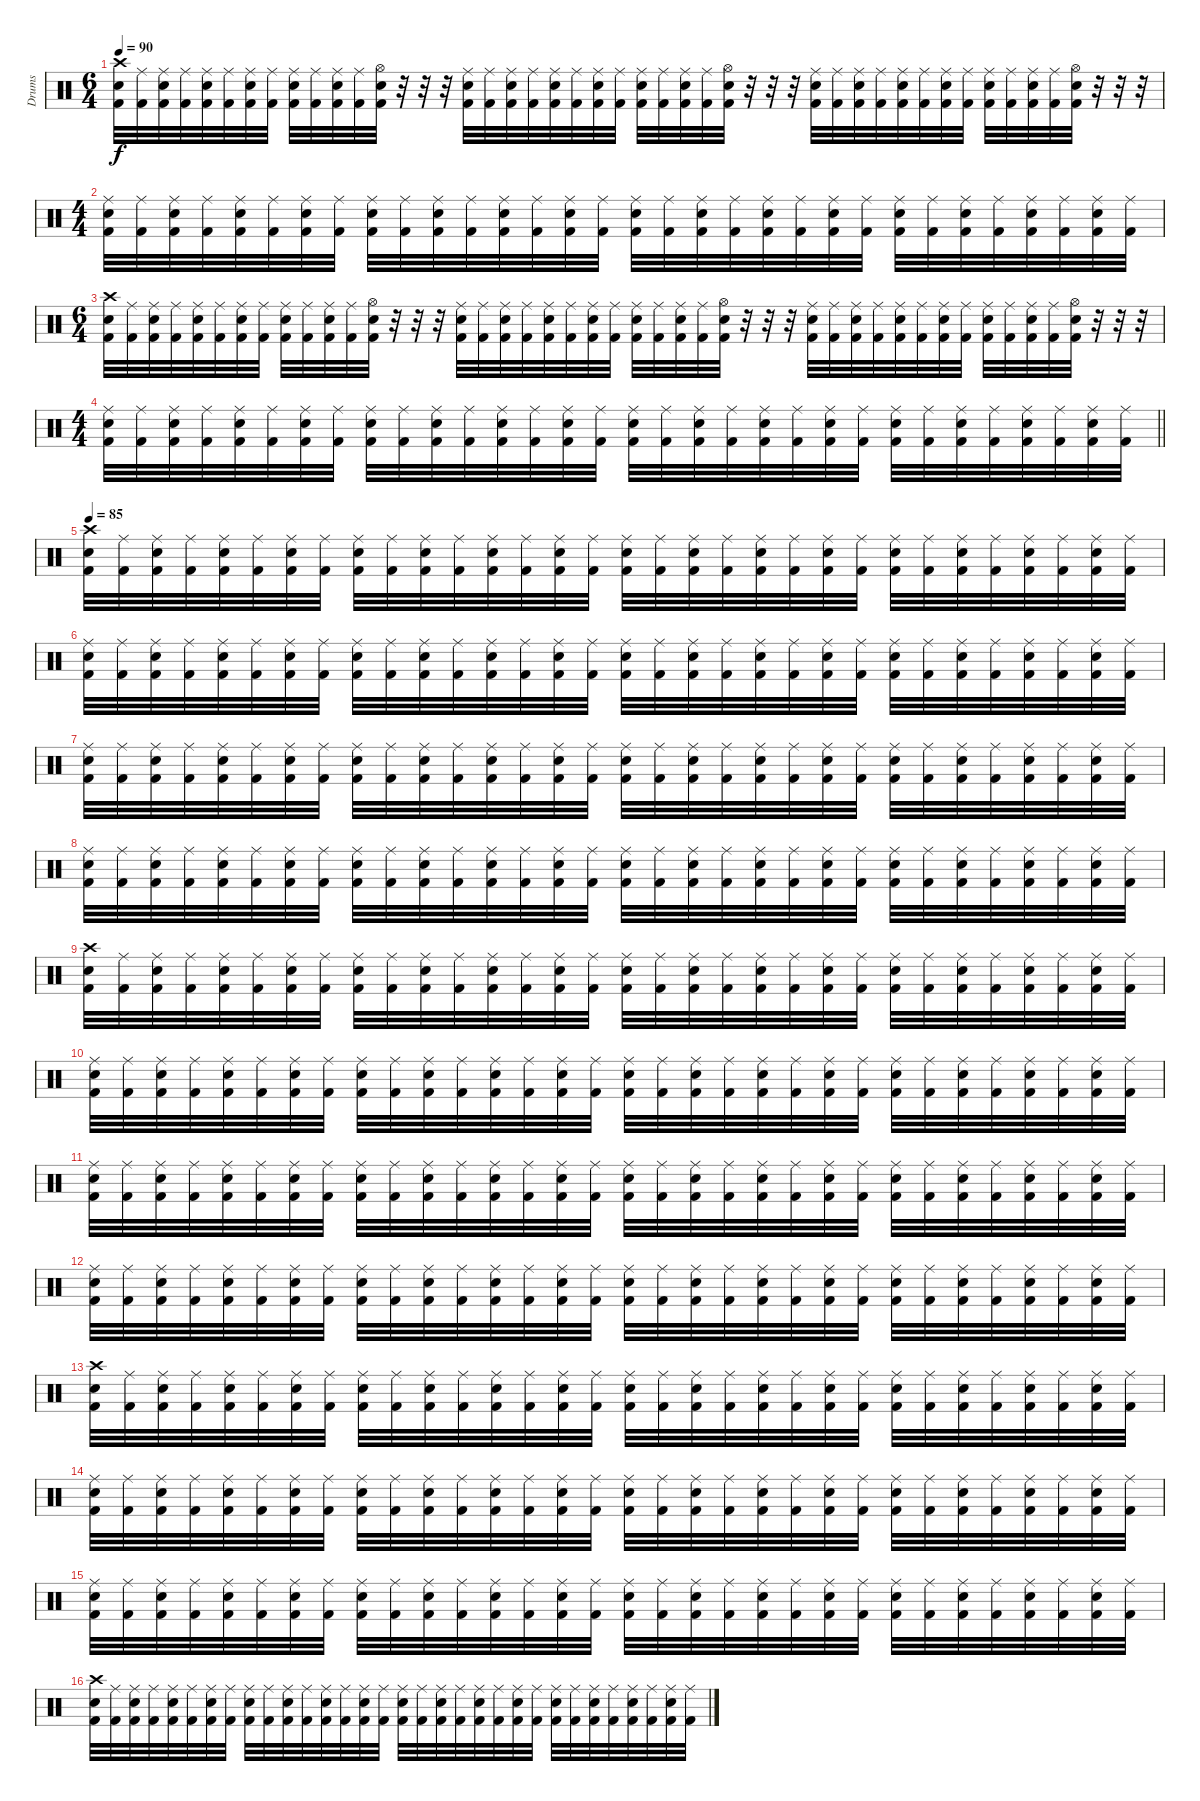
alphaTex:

\track ("Drums" "Drums") {instrument percussion}
\staff {score}
\articulation defaults
\ts (6 4)
\tempo 90
\clef neutral
\ks c
("Crash high (hit)" "Electric Snare (hit)" "Kick (hit) 2").32{dy f} ("Ride (middle)" "Kick (hit) 2").32 ("Ride (middle)" "Electric Snare (hit)" "Kick (hit) 2").32 ("Ride (middle)" "Kick (hit) 2").32 ("Ride (middle)" "Electric Snare (hit)" "Kick (hit) 2").32 ("Ride (middle)" "Kick (hit) 2").32 ("Ride (middle)" "Electric Snare (hit)" "Kick (hit) 2").32 ("Ride (middle)" "Kick (hit) 2").32 ("Ride (middle)" "Electric Snare (hit)" "Kick (hit) 2").32 ("Ride (middle)" "Kick (hit) 2").32 ("Ride (middle)" "Electric Snare (hit)" "Kick (hit) 2").32 ("Ride (middle)" "Kick (hit) 2").32 ("Hi-Hat (open)" "Electric Snare (hit)" "Kick (hit) 2").32 r.32 r.32 r.32 ("Ride (middle)" "Electric Snare (hit)" "Kick (hit) 2").32 ("Ride (middle)" "Kick (hit) 2").32 ("Ride (middle)" "Electric Snare (hit)" "Kick (hit) 2").32 ("Ride (middle)" "Kick (hit) 2").32 ("Ride (middle)" "Electric Snare (hit)" "Kick (hit) 2").32 ("Ride (middle)" "Kick (hit) 2").32 ("Ride (middle)" "Electric Snare (hit)" "Kick (hit) 2").32 ("Ride (middle)" "Kick (hit) 2").32 ("Ride (middle)" "Electric Snare (hit)" "Kick (hit) 2").32 ("Ride (middle)" "Kick (hit) 2").32 ("Ride (middle)" "Electric Snare (hit)" "Kick (hit) 2").32 ("Ride (middle)" "Kick (hit) 2").32 ("Hi-Hat (open)" "Electric Snare (hit)" "Kick (hit) 2").32 r.32 r.32 r.32 ("Ride (middle)" "Electric Snare (hit)" "Kick (hit) 2").32 ("Ride (middle)" "Kick (hit) 2").32 ("Ride (middle)" "Electric Snare (hit)" "Kick (hit) 2").32 ("Ride (middle)" "Kick (hit) 2").32 ("Ride (middle)" "Electric Snare (hit)" "Kick (hit) 2").32 ("Ride (middle)" "Kick (hit) 2").32 ("Ride (middle)" "Electric Snare (hit)" "Kick (hit) 2").32 ("Ride (middle)" "Kick (hit) 2").32 ("Ride (middle)" "Electric Snare (hit)" "Kick (hit) 2").32 ("Ride (middle)" "Kick (hit) 2").32 ("Ride (middle)" "Electric Snare (hit)" "Kick (hit) 2").32 ("Ride (middle)" "Kick (hit) 2").32 ("Hi-Hat (open)" "Electric Snare (hit)" "Kick (hit) 2").32 r.32 r.32 r.32 |
\ts (4 4)
("Ride (middle)" "Electric Snare (hit)" "Kick (hit) 2").32 ("Ride (middle)" "Kick (hit) 2").32 ("Ride (middle)" "Electric Snare (hit)" "Kick (hit) 2").32 ("Ride (middle)" "Kick (hit) 2").32 ("Ride (middle)" "Electric Snare (hit)" "Kick (hit) 2").32 ("Ride (middle)" "Kick (hit) 2").32 ("Ride (middle)" "Electric Snare (hit)" "Kick (hit) 2").32 ("Ride (middle)" "Kick (hit) 2").32 ("Ride (middle)" "Electric Snare (hit)" "Kick (hit) 2").32 ("Ride (middle)" "Kick (hit) 2").32 ("Ride (middle)" "Electric Snare (hit)" "Kick (hit) 2").32 ("Ride (middle)" "Kick (hit) 2").32 ("Ride (middle)" "Electric Snare (hit)" "Kick (hit) 2").32 ("Ride (middle)" "Kick (hit) 2").32 ("Ride (middle)" "Electric Snare (hit)" "Kick (hit) 2").32 ("Ride (middle)" "Kick (hit) 2").32 ("Ride (middle)" "Electric Snare (hit)" "Kick (hit) 2").32 ("Ride (middle)" "Kick (hit) 2").32 ("Ride (middle)" "Electric Snare (hit)" "Kick (hit) 2").32 ("Ride (middle)" "Kick (hit) 2").32 ("Ride (middle)" "Electric Snare (hit)" "Kick (hit) 2").32 ("Ride (middle)" "Kick (hit) 2").32 ("Ride (middle)" "Electric Snare (hit)" "Kick (hit) 2").32 ("Ride (middle)" "Kick (hit) 2").32 ("Ride (middle)" "Electric Snare (hit)" "Kick (hit) 2").32 ("Ride (middle)" "Kick (hit) 2").32 ("Ride (middle)" "Electric Snare (hit)" "Kick (hit) 2").32 ("Ride (middle)" "Kick (hit) 2").32 ("Ride (middle)" "Electric Snare (hit)" "Kick (hit) 2").32 ("Ride (middle)" "Kick (hit) 2").32 ("Ride (middle)" "Electric Snare (hit)" "Kick (hit) 2").32 ("Ride (middle)" "Kick (hit) 2").32 |
\ts (6 4)
("Crash high (hit)" "Electric Snare (hit)" "Kick (hit) 2").32 ("Ride (middle)" "Kick (hit) 2").32 ("Ride (middle)" "Electric Snare (hit)" "Kick (hit) 2").32 ("Ride (middle)" "Kick (hit) 2").32 ("Ride (middle)" "Electric Snare (hit)" "Kick (hit) 2").32 ("Ride (middle)" "Kick (hit) 2").32 ("Ride (middle)" "Electric Snare (hit)" "Kick (hit) 2").32 ("Ride (middle)" "Kick (hit) 2").32 ("Ride (middle)" "Electric Snare (hit)" "Kick (hit) 2").32 ("Ride (middle)" "Kick (hit) 2").32 ("Ride (middle)" "Electric Snare (hit)" "Kick (hit) 2").32 ("Ride (middle)" "Kick (hit) 2").32 ("Hi-Hat (open)" "Electric Snare (hit)" "Kick (hit) 2").32 r.32 r.32 r.32 ("Ride (middle)" "Electric Snare (hit)" "Kick (hit) 2").32 ("Ride (middle)" "Kick (hit) 2").32 ("Ride (middle)" "Electric Snare (hit)" "Kick (hit) 2").32 ("Ride (middle)" "Kick (hit) 2").32 ("Ride (middle)" "Electric Snare (hit)" "Kick (hit) 2").32 ("Ride (middle)" "Kick (hit) 2").32 ("Ride (middle)" "Electric Snare (hit)" "Kick (hit) 2").32 ("Ride (middle)" "Kick (hit) 2").32 ("Ride (middle)" "Electric Snare (hit)" "Kick (hit) 2").32 ("Ride (middle)" "Kick (hit) 2").32 ("Ride (middle)" "Electric Snare (hit)" "Kick (hit) 2").32 ("Ride (middle)" "Kick (hit) 2").32 ("Hi-Hat (open)" "Electric Snare (hit)" "Kick (hit) 2").32 r.32 r.32 r.32 ("Ride (middle)" "Electric Snare (hit)" "Kick (hit) 2").32 ("Ride (middle)" "Kick (hit) 2").32 ("Ride (middle)" "Electric Snare (hit)" "Kick (hit) 2").32 ("Ride (middle)" "Kick (hit) 2").32 ("Ride (middle)" "Electric Snare (hit)" "Kick (hit) 2").32 ("Ride (middle)" "Kick (hit) 2").32 ("Ride (middle)" "Electric Snare (hit)" "Kick (hit) 2").32 ("Ride (middle)" "Kick (hit) 2").32 ("Ride (middle)" "Electric Snare (hit)" "Kick (hit) 2").32 ("Ride (middle)" "Kick (hit) 2").32 ("Ride (middle)" "Electric Snare (hit)" "Kick (hit) 2").32 ("Ride (middle)" "Kick (hit) 2").32 ("Hi-Hat (open)" "Electric Snare (hit)" "Kick (hit) 2").32 r.32 r.32 r.32 |
\ts (4 4)
\barLineRight lightlight
("Ride (middle)" "Electric Snare (hit)" "Kick (hit) 2").32 ("Ride (middle)" "Kick (hit) 2").32 ("Ride (middle)" "Electric Snare (hit)" "Kick (hit) 2").32 ("Ride (middle)" "Kick (hit) 2").32 ("Ride (middle)" "Electric Snare (hit)" "Kick (hit) 2").32 ("Ride (middle)" "Kick (hit) 2").32 ("Ride (middle)" "Electric Snare (hit)" "Kick (hit) 2").32 ("Ride (middle)" "Kick (hit) 2").32 ("Ride (middle)" "Electric Snare (hit)" "Kick (hit) 2").32 ("Ride (middle)" "Kick (hit) 2").32 ("Ride (middle)" "Electric Snare (hit)" "Kick (hit) 2").32 ("Ride (middle)" "Kick (hit) 2").32 ("Ride (middle)" "Electric Snare (hit)" "Kick (hit) 2").32 ("Ride (middle)" "Kick (hit) 2").32 ("Ride (middle)" "Electric Snare (hit)" "Kick (hit) 2").32 ("Ride (middle)" "Kick (hit) 2").32 ("Ride (middle)" "Electric Snare (hit)" "Kick (hit) 2").32 ("Ride (middle)" "Kick (hit) 2").32 ("Ride (middle)" "Electric Snare (hit)" "Kick (hit) 2").32 ("Ride (middle)" "Kick (hit) 2").32 ("Ride (middle)" "Electric Snare (hit)" "Kick (hit) 2").32 ("Ride (middle)" "Kick (hit) 2").32 ("Ride (middle)" "Electric Snare (hit)" "Kick (hit) 2").32 ("Ride (middle)" "Kick (hit) 2").32 ("Ride (middle)" "Electric Snare (hit)" "Kick (hit) 2").32 ("Ride (middle)" "Kick (hit) 2").32 ("Ride (middle)" "Electric Snare (hit)" "Kick (hit) 2").32 ("Ride (middle)" "Kick (hit) 2").32 ("Ride (middle)" "Electric Snare (hit)" "Kick (hit) 2").32 ("Ride (middle)" "Kick (hit) 2").32 ("Ride (middle)" "Electric Snare (hit)" "Kick (hit) 2").32 ("Ride (middle)" "Kick (hit) 2").32 |
\tempo 85
("Crash high (hit)" "Electric Snare (hit)" "Kick (hit) 2").32 ("Ride (middle)" "Kick (hit) 2").32 ("Ride (middle)" "Electric Snare (hit)" "Kick (hit) 2").32 ("Ride (middle)" "Kick (hit) 2").32 ("Ride (middle)" "Electric Snare (hit)" "Kick (hit) 2").32 ("Ride (middle)" "Kick (hit) 2").32 ("Ride (middle)" "Electric Snare (hit)" "Kick (hit) 2").32 ("Ride (middle)" "Kick (hit) 2").32 ("Ride (middle)" "Electric Snare (hit)" "Kick (hit) 2").32 ("Ride (middle)" "Kick (hit) 2").32 ("Ride (middle)" "Electric Snare (hit)" "Kick (hit) 2").32 ("Ride (middle)" "Kick (hit) 2").32 ("Ride (middle)" "Electric Snare (hit)" "Kick (hit) 2").32 ("Ride (middle)" "Kick (hit) 2").32 ("Ride (middle)" "Electric Snare (hit)" "Kick (hit) 2").32 ("Ride (middle)" "Kick (hit) 2").32 ("Ride (middle)" "Electric Snare (hit)" "Kick (hit) 2").32 ("Ride (middle)" "Kick (hit) 2").32 ("Ride (middle)" "Electric Snare (hit)" "Kick (hit) 2").32 ("Ride (middle)" "Kick (hit) 2").32 ("Ride (middle)" "Electric Snare (hit)" "Kick (hit) 2").32 ("Ride (middle)" "Kick (hit) 2").32 ("Ride (middle)" "Electric Snare (hit)" "Kick (hit) 2").32 ("Ride (middle)" "Kick (hit) 2").32 ("Ride (middle)" "Electric Snare (hit)" "Kick (hit) 2").32 ("Ride (middle)" "Kick (hit) 2").32 ("Ride (middle)" "Electric Snare (hit)" "Kick (hit) 2").32 ("Ride (middle)" "Kick (hit) 2").32 ("Ride (middle)" "Electric Snare (hit)" "Kick (hit) 2").32 ("Ride (middle)" "Kick (hit) 2").32 ("Ride (middle)" "Electric Snare (hit)" "Kick (hit) 2").32 ("Ride (middle)" "Kick (hit) 2").32 |
("Ride (middle)" "Electric Snare (hit)" "Kick (hit) 2").32 ("Ride (middle)" "Kick (hit) 2").32 ("Ride (middle)" "Electric Snare (hit)" "Kick (hit) 2").32 ("Ride (middle)" "Kick (hit) 2").32 ("Ride (middle)" "Electric Snare (hit)" "Kick (hit) 2").32 ("Ride (middle)" "Kick (hit) 2").32 ("Ride (middle)" "Electric Snare (hit)" "Kick (hit) 2").32 ("Ride (middle)" "Kick (hit) 2").32 ("Ride (middle)" "Electric Snare (hit)" "Kick (hit) 2").32 ("Ride (middle)" "Kick (hit) 2").32 ("Ride (middle)" "Electric Snare (hit)" "Kick (hit) 2").32 ("Ride (middle)" "Kick (hit) 2").32 ("Ride (middle)" "Electric Snare (hit)" "Kick (hit) 2").32 ("Ride (middle)" "Kick (hit) 2").32 ("Ride (middle)" "Electric Snare (hit)" "Kick (hit) 2").32 ("Ride (middle)" "Kick (hit) 2").32 ("Ride (middle)" "Electric Snare (hit)" "Kick (hit) 2").32 ("Ride (middle)" "Kick (hit) 2").32 ("Ride (middle)" "Electric Snare (hit)" "Kick (hit) 2").32 ("Ride (middle)" "Kick (hit) 2").32 ("Ride (middle)" "Electric Snare (hit)" "Kick (hit) 2").32 ("Ride (middle)" "Kick (hit) 2").32 ("Ride (middle)" "Electric Snare (hit)" "Kick (hit) 2").32 ("Ride (middle)" "Kick (hit) 2").32 ("Ride (middle)" "Electric Snare (hit)" "Kick (hit) 2").32 ("Ride (middle)" "Kick (hit) 2").32 ("Ride (middle)" "Electric Snare (hit)" "Kick (hit) 2").32 ("Ride (middle)" "Kick (hit) 2").32 ("Ride (middle)" "Electric Snare (hit)" "Kick (hit) 2").32 ("Ride (middle)" "Kick (hit) 2").32 ("Ride (middle)" "Electric Snare (hit)" "Kick (hit) 2").32 ("Ride (middle)" "Kick (hit) 2").32 |
("Ride (middle)" "Electric Snare (hit)" "Kick (hit) 2").32 ("Ride (middle)" "Kick (hit) 2").32 ("Ride (middle)" "Electric Snare (hit)" "Kick (hit) 2").32 ("Ride (middle)" "Kick (hit) 2").32 ("Ride (middle)" "Electric Snare (hit)" "Kick (hit) 2").32 ("Ride (middle)" "Kick (hit) 2").32 ("Ride (middle)" "Electric Snare (hit)" "Kick (hit) 2").32 ("Ride (middle)" "Kick (hit) 2").32 ("Ride (middle)" "Electric Snare (hit)" "Kick (hit) 2").32 ("Ride (middle)" "Kick (hit) 2").32 ("Ride (middle)" "Electric Snare (hit)" "Kick (hit) 2").32 ("Ride (middle)" "Kick (hit) 2").32 ("Ride (middle)" "Electric Snare (hit)" "Kick (hit) 2").32 ("Ride (middle)" "Kick (hit) 2").32 ("Ride (middle)" "Electric Snare (hit)" "Kick (hit) 2").32 ("Ride (middle)" "Kick (hit) 2").32 ("Ride (middle)" "Electric Snare (hit)" "Kick (hit) 2").32 ("Ride (middle)" "Kick (hit) 2").32 ("Ride (middle)" "Electric Snare (hit)" "Kick (hit) 2").32 ("Ride (middle)" "Kick (hit) 2").32 ("Ride (middle)" "Electric Snare (hit)" "Kick (hit) 2").32 ("Ride (middle)" "Kick (hit) 2").32 ("Ride (middle)" "Electric Snare (hit)" "Kick (hit) 2").32 ("Ride (middle)" "Kick (hit) 2").32 ("Ride (middle)" "Electric Snare (hit)" "Kick (hit) 2").32 ("Ride (middle)" "Kick (hit) 2").32 ("Ride (middle)" "Electric Snare (hit)" "Kick (hit) 2").32 ("Ride (middle)" "Kick (hit) 2").32 ("Ride (middle)" "Electric Snare (hit)" "Kick (hit) 2").32 ("Ride (middle)" "Kick (hit) 2").32 ("Ride (middle)" "Electric Snare (hit)" "Kick (hit) 2").32 ("Ride (middle)" "Kick (hit) 2").32 |
("Ride (middle)" "Electric Snare (hit)" "Kick (hit) 2").32 ("Ride (middle)" "Kick (hit) 2").32 ("Ride (middle)" "Electric Snare (hit)" "Kick (hit) 2").32 ("Ride (middle)" "Kick (hit) 2").32 ("Ride (middle)" "Electric Snare (hit)" "Kick (hit) 2").32 ("Ride (middle)" "Kick (hit) 2").32 ("Ride (middle)" "Electric Snare (hit)" "Kick (hit) 2").32 ("Ride (middle)" "Kick (hit) 2").32 ("Ride (middle)" "Electric Snare (hit)" "Kick (hit) 2").32 ("Ride (middle)" "Kick (hit) 2").32 ("Ride (middle)" "Electric Snare (hit)" "Kick (hit) 2").32 ("Ride (middle)" "Kick (hit) 2").32 ("Ride (middle)" "Electric Snare (hit)" "Kick (hit) 2").32 ("Ride (middle)" "Kick (hit) 2").32 ("Ride (middle)" "Electric Snare (hit)" "Kick (hit) 2").32 ("Ride (middle)" "Kick (hit) 2").32 ("Ride (middle)" "Electric Snare (hit)" "Kick (hit) 2").32 ("Ride (middle)" "Kick (hit) 2").32 ("Ride (middle)" "Electric Snare (hit)" "Kick (hit) 2").32 ("Ride (middle)" "Kick (hit) 2").32 ("Ride (middle)" "Electric Snare (hit)" "Kick (hit) 2").32 ("Ride (middle)" "Kick (hit) 2").32 ("Ride (middle)" "Electric Snare (hit)" "Kick (hit) 2").32 ("Ride (middle)" "Kick (hit) 2").32 ("Ride (middle)" "Electric Snare (hit)" "Kick (hit) 2").32 ("Ride (middle)" "Kick (hit) 2").32 ("Ride (middle)" "Electric Snare (hit)" "Kick (hit) 2").32 ("Ride (middle)" "Kick (hit) 2").32 ("Ride (middle)" "Electric Snare (hit)" "Kick (hit) 2").32 ("Ride (middle)" "Kick (hit) 2").32 ("Ride (middle)" "Electric Snare (hit)" "Kick (hit) 2").32 ("Ride (middle)" "Kick (hit) 2").32 |
("Crash high (hit)" "Electric Snare (hit)" "Kick (hit) 2").32 ("Ride (middle)" "Kick (hit) 2").32 ("Ride (middle)" "Electric Snare (hit)" "Kick (hit) 2").32 ("Ride (middle)" "Kick (hit) 2").32 ("Ride (middle)" "Electric Snare (hit)" "Kick (hit) 2").32 ("Ride (middle)" "Kick (hit) 2").32 ("Ride (middle)" "Electric Snare (hit)" "Kick (hit) 2").32 ("Ride (middle)" "Kick (hit) 2").32 ("Ride (middle)" "Electric Snare (hit)" "Kick (hit) 2").32 ("Ride (middle)" "Kick (hit) 2").32 ("Ride (middle)" "Electric Snare (hit)" "Kick (hit) 2").32 ("Ride (middle)" "Kick (hit) 2").32 ("Ride (middle)" "Electric Snare (hit)" "Kick (hit) 2").32 ("Ride (middle)" "Kick (hit) 2").32 ("Ride (middle)" "Electric Snare (hit)" "Kick (hit) 2").32 ("Ride (middle)" "Kick (hit) 2").32 ("Ride (middle)" "Electric Snare (hit)" "Kick (hit) 2").32 ("Ride (middle)" "Kick (hit) 2").32 ("Ride (middle)" "Electric Snare (hit)" "Kick (hit) 2").32 ("Ride (middle)" "Kick (hit) 2").32 ("Ride (middle)" "Electric Snare (hit)" "Kick (hit) 2").32 ("Ride (middle)" "Kick (hit) 2").32 ("Ride (middle)" "Electric Snare (hit)" "Kick (hit) 2").32 ("Ride (middle)" "Kick (hit) 2").32 ("Ride (middle)" "Electric Snare (hit)" "Kick (hit) 2").32 ("Ride (middle)" "Kick (hit) 2").32 ("Ride (middle)" "Electric Snare (hit)" "Kick (hit) 2").32 ("Ride (middle)" "Kick (hit) 2").32 ("Ride (middle)" "Electric Snare (hit)" "Kick (hit) 2").32 ("Ride (middle)" "Kick (hit) 2").32 ("Ride (middle)" "Electric Snare (hit)" "Kick (hit) 2").32 ("Ride (middle)" "Kick (hit) 2").32 |
("Ride (middle)" "Electric Snare (hit)" "Kick (hit) 2").32 ("Ride (middle)" "Kick (hit) 2").32 ("Ride (middle)" "Electric Snare (hit)" "Kick (hit) 2").32 ("Ride (middle)" "Kick (hit) 2").32 ("Ride (middle)" "Electric Snare (hit)" "Kick (hit) 2").32 ("Ride (middle)" "Kick (hit) 2").32 ("Ride (middle)" "Electric Snare (hit)" "Kick (hit) 2").32 ("Ride (middle)" "Kick (hit) 2").32 ("Ride (middle)" "Electric Snare (hit)" "Kick (hit) 2").32 ("Ride (middle)" "Kick (hit) 2").32 ("Ride (middle)" "Electric Snare (hit)" "Kick (hit) 2").32 ("Ride (middle)" "Kick (hit) 2").32 ("Ride (middle)" "Electric Snare (hit)" "Kick (hit) 2").32 ("Ride (middle)" "Kick (hit) 2").32 ("Ride (middle)" "Electric Snare (hit)" "Kick (hit) 2").32 ("Ride (middle)" "Kick (hit) 2").32 ("Ride (middle)" "Electric Snare (hit)" "Kick (hit) 2").32 ("Ride (middle)" "Kick (hit) 2").32 ("Ride (middle)" "Electric Snare (hit)" "Kick (hit) 2").32 ("Ride (middle)" "Kick (hit) 2").32 ("Ride (middle)" "Electric Snare (hit)" "Kick (hit) 2").32 ("Ride (middle)" "Kick (hit) 2").32 ("Ride (middle)" "Electric Snare (hit)" "Kick (hit) 2").32 ("Ride (middle)" "Kick (hit) 2").32 ("Ride (middle)" "Electric Snare (hit)" "Kick (hit) 2").32 ("Ride (middle)" "Kick (hit) 2").32 ("Ride (middle)" "Electric Snare (hit)" "Kick (hit) 2").32 ("Ride (middle)" "Kick (hit) 2").32 ("Ride (middle)" "Electric Snare (hit)" "Kick (hit) 2").32 ("Ride (middle)" "Kick (hit) 2").32 ("Ride (middle)" "Electric Snare (hit)" "Kick (hit) 2").32 ("Ride (middle)" "Kick (hit) 2").32 |
("Ride (middle)" "Electric Snare (hit)" "Kick (hit) 2").32 ("Ride (middle)" "Kick (hit) 2").32 ("Ride (middle)" "Electric Snare (hit)" "Kick (hit) 2").32 ("Ride (middle)" "Kick (hit) 2").32 ("Ride (middle)" "Electric Snare (hit)" "Kick (hit) 2").32 ("Ride (middle)" "Kick (hit) 2").32 ("Ride (middle)" "Electric Snare (hit)" "Kick (hit) 2").32 ("Ride (middle)" "Kick (hit) 2").32 ("Ride (middle)" "Electric Snare (hit)" "Kick (hit) 2").32 ("Ride (middle)" "Kick (hit) 2").32 ("Ride (middle)" "Electric Snare (hit)" "Kick (hit) 2").32 ("Ride (middle)" "Kick (hit) 2").32 ("Ride (middle)" "Electric Snare (hit)" "Kick (hit) 2").32 ("Ride (middle)" "Kick (hit) 2").32 ("Ride (middle)" "Electric Snare (hit)" "Kick (hit) 2").32 ("Ride (middle)" "Kick (hit) 2").32 ("Ride (middle)" "Electric Snare (hit)" "Kick (hit) 2").32 ("Ride (middle)" "Kick (hit) 2").32 ("Ride (middle)" "Electric Snare (hit)" "Kick (hit) 2").32 ("Ride (middle)" "Kick (hit) 2").32 ("Ride (middle)" "Electric Snare (hit)" "Kick (hit) 2").32 ("Ride (middle)" "Kick (hit) 2").32 ("Ride (middle)" "Electric Snare (hit)" "Kick (hit) 2").32 ("Ride (middle)" "Kick (hit) 2").32 ("Ride (middle)" "Electric Snare (hit)" "Kick (hit) 2").32 ("Ride (middle)" "Kick (hit) 2").32 ("Ride (middle)" "Electric Snare (hit)" "Kick (hit) 2").32 ("Ride (middle)" "Kick (hit) 2").32 ("Ride (middle)" "Electric Snare (hit)" "Kick (hit) 2").32 ("Ride (middle)" "Kick (hit) 2").32 ("Ride (middle)" "Electric Snare (hit)" "Kick (hit) 2").32 ("Ride (middle)" "Kick (hit) 2").32 |
("Ride (middle)" "Electric Snare (hit)" "Kick (hit) 2").32 ("Ride (middle)" "Kick (hit) 2").32 ("Ride (middle)" "Electric Snare (hit)" "Kick (hit) 2").32 ("Ride (middle)" "Kick (hit) 2").32 ("Ride (middle)" "Electric Snare (hit)" "Kick (hit) 2").32 ("Ride (middle)" "Kick (hit) 2").32 ("Ride (middle)" "Electric Snare (hit)" "Kick (hit) 2").32 ("Ride (middle)" "Kick (hit) 2").32 ("Ride (middle)" "Electric Snare (hit)" "Kick (hit) 2").32 ("Ride (middle)" "Kick (hit) 2").32 ("Ride (middle)" "Electric Snare (hit)" "Kick (hit) 2").32 ("Ride (middle)" "Kick (hit) 2").32 ("Ride (middle)" "Electric Snare (hit)" "Kick (hit) 2").32 ("Ride (middle)" "Kick (hit) 2").32 ("Ride (middle)" "Electric Snare (hit)" "Kick (hit) 2").32 ("Ride (middle)" "Kick (hit) 2").32 ("Ride (middle)" "Electric Snare (hit)" "Kick (hit) 2").32 ("Ride (middle)" "Kick (hit) 2").32 ("Ride (middle)" "Electric Snare (hit)" "Kick (hit) 2").32 ("Ride (middle)" "Kick (hit) 2").32 ("Ride (middle)" "Electric Snare (hit)" "Kick (hit) 2").32 ("Ride (middle)" "Kick (hit) 2").32 ("Ride (middle)" "Electric Snare (hit)" "Kick (hit) 2").32 ("Ride (middle)" "Kick (hit) 2").32 ("Ride (middle)" "Electric Snare (hit)" "Kick (hit) 2").32 ("Ride (middle)" "Kick (hit) 2").32 ("Ride (middle)" "Electric Snare (hit)" "Kick (hit) 2").32 ("Ride (middle)" "Kick (hit) 2").32 ("Ride (middle)" "Electric Snare (hit)" "Kick (hit) 2").32 ("Ride (middle)" "Kick (hit) 2").32 ("Ride (middle)" "Electric Snare (hit)" "Kick (hit) 2").32 ("Ride (middle)" "Kick (hit) 2").32 |
("Crash high (hit)" "Electric Snare (hit)" "Kick (hit) 2").32 ("Ride (middle)" "Kick (hit) 2").32 ("Ride (middle)" "Electric Snare (hit)" "Kick (hit) 2").32 ("Ride (middle)" "Kick (hit) 2").32 ("Ride (middle)" "Electric Snare (hit)" "Kick (hit) 2").32 ("Ride (middle)" "Kick (hit) 2").32 ("Ride (middle)" "Electric Snare (hit)" "Kick (hit) 2").32 ("Ride (middle)" "Kick (hit) 2").32 ("Ride (middle)" "Electric Snare (hit)" "Kick (hit) 2").32 ("Ride (middle)" "Kick (hit) 2").32 ("Ride (middle)" "Electric Snare (hit)" "Kick (hit) 2").32 ("Ride (middle)" "Kick (hit) 2").32 ("Ride (middle)" "Electric Snare (hit)" "Kick (hit) 2").32 ("Ride (middle)" "Kick (hit) 2").32 ("Ride (middle)" "Electric Snare (hit)" "Kick (hit) 2").32 ("Ride (middle)" "Kick (hit) 2").32 ("Ride (middle)" "Electric Snare (hit)" "Kick (hit) 2").32 ("Ride (middle)" "Kick (hit) 2").32 ("Ride (middle)" "Electric Snare (hit)" "Kick (hit) 2").32 ("Ride (middle)" "Kick (hit) 2").32 ("Ride (middle)" "Electric Snare (hit)" "Kick (hit) 2").32 ("Ride (middle)" "Kick (hit) 2").32 ("Ride (middle)" "Electric Snare (hit)" "Kick (hit) 2").32 ("Ride (middle)" "Kick (hit) 2").32 ("Ride (middle)" "Electric Snare (hit)" "Kick (hit) 2").32 ("Ride (middle)" "Kick (hit) 2").32 ("Ride (middle)" "Electric Snare (hit)" "Kick (hit) 2").32 ("Ride (middle)" "Kick (hit) 2").32 ("Ride (middle)" "Electric Snare (hit)" "Kick (hit) 2").32 ("Ride (middle)" "Kick (hit) 2").32 ("Ride (middle)" "Electric Snare (hit)" "Kick (hit) 2").32 ("Ride (middle)" "Kick (hit) 2").32 |
("Ride (middle)" "Electric Snare (hit)" "Kick (hit) 2").32 ("Ride (middle)" "Kick (hit) 2").32 ("Ride (middle)" "Electric Snare (hit)" "Kick (hit) 2").32 ("Ride (middle)" "Kick (hit) 2").32 ("Ride (middle)" "Electric Snare (hit)" "Kick (hit) 2").32 ("Ride (middle)" "Kick (hit) 2").32 ("Ride (middle)" "Electric Snare (hit)" "Kick (hit) 2").32 ("Ride (middle)" "Kick (hit) 2").32 ("Ride (middle)" "Electric Snare (hit)" "Kick (hit) 2").32 ("Ride (middle)" "Kick (hit) 2").32 ("Ride (middle)" "Electric Snare (hit)" "Kick (hit) 2").32 ("Ride (middle)" "Kick (hit) 2").32 ("Ride (middle)" "Electric Snare (hit)" "Kick (hit) 2").32 ("Ride (middle)" "Kick (hit) 2").32 ("Ride (middle)" "Electric Snare (hit)" "Kick (hit) 2").32 ("Ride (middle)" "Kick (hit) 2").32 ("Ride (middle)" "Electric Snare (hit)" "Kick (hit) 2").32 ("Ride (middle)" "Kick (hit) 2").32 ("Ride (middle)" "Electric Snare (hit)" "Kick (hit) 2").32 ("Ride (middle)" "Kick (hit) 2").32 ("Ride (middle)" "Electric Snare (hit)" "Kick (hit) 2").32 ("Ride (middle)" "Kick (hit) 2").32 ("Ride (middle)" "Electric Snare (hit)" "Kick (hit) 2").32 ("Ride (middle)" "Kick (hit) 2").32 ("Ride (middle)" "Electric Snare (hit)" "Kick (hit) 2").32 ("Ride (middle)" "Kick (hit) 2").32 ("Ride (middle)" "Electric Snare (hit)" "Kick (hit) 2").32 ("Ride (middle)" "Kick (hit) 2").32 ("Ride (middle)" "Electric Snare (hit)" "Kick (hit) 2").32 ("Ride (middle)" "Kick (hit) 2").32 ("Ride (middle)" "Electric Snare (hit)" "Kick (hit) 2").32 ("Ride (middle)" "Kick (hit) 2").32 |
("Ride (middle)" "Electric Snare (hit)" "Kick (hit) 2").32 ("Ride (middle)" "Kick (hit) 2").32 ("Ride (middle)" "Electric Snare (hit)" "Kick (hit) 2").32 ("Ride (middle)" "Kick (hit) 2").32 ("Ride (middle)" "Electric Snare (hit)" "Kick (hit) 2").32 ("Ride (middle)" "Kick (hit) 2").32 ("Ride (middle)" "Electric Snare (hit)" "Kick (hit) 2").32 ("Ride (middle)" "Kick (hit) 2").32 ("Ride (middle)" "Electric Snare (hit)" "Kick (hit) 2").32 ("Ride (middle)" "Kick (hit) 2").32 ("Ride (middle)" "Electric Snare (hit)" "Kick (hit) 2").32 ("Ride (middle)" "Kick (hit) 2").32 ("Ride (middle)" "Electric Snare (hit)" "Kick (hit) 2").32 ("Ride (middle)" "Kick (hit) 2").32 ("Ride (middle)" "Electric Snare (hit)" "Kick (hit) 2").32 ("Ride (middle)" "Kick (hit) 2").32 ("Ride (middle)" "Electric Snare (hit)" "Kick (hit) 2").32 ("Ride (middle)" "Kick (hit) 2").32 ("Ride (middle)" "Electric Snare (hit)" "Kick (hit) 2").32 ("Ride (middle)" "Kick (hit) 2").32 ("Ride (middle)" "Electric Snare (hit)" "Kick (hit) 2").32 ("Ride (middle)" "Kick (hit) 2").32 ("Ride (middle)" "Electric Snare (hit)" "Kick (hit) 2").32 ("Ride (middle)" "Kick (hit) 2").32 ("Ride (middle)" "Electric Snare (hit)" "Kick (hit) 2").32 ("Ride (middle)" "Kick (hit) 2").32 ("Ride (middle)" "Electric Snare (hit)" "Kick (hit) 2").32 ("Ride (middle)" "Kick (hit) 2").32 ("Ride (middle)" "Electric Snare (hit)" "Kick (hit) 2").32 ("Ride (middle)" "Kick (hit) 2").32 ("Ride (middle)" "Electric Snare (hit)" "Kick (hit) 2").32 ("Ride (middle)" "Kick (hit) 2").32 |
("Crash high (hit)" "Electric Snare (hit)" "Kick (hit) 2").32 ("Ride (middle)" "Kick (hit) 2").32 ("Ride (middle)" "Electric Snare (hit)" "Kick (hit) 2").32 ("Ride (middle)" "Kick (hit) 2").32 ("Ride (middle)" "Electric Snare (hit)" "Kick (hit) 2").32 ("Ride (middle)" "Kick (hit) 2").32 ("Ride (middle)" "Electric Snare (hit)" "Kick (hit) 2").32 ("Ride (middle)" "Kick (hit) 2").32 ("Ride (middle)" "Electric Snare (hit)" "Kick (hit) 2").32 ("Ride (middle)" "Kick (hit) 2").32 ("Ride (middle)" "Electric Snare (hit)" "Kick (hit) 2").32 ("Ride (middle)" "Kick (hit) 2").32 ("Ride (middle)" "Electric Snare (hit)" "Kick (hit) 2").32 ("Ride (middle)" "Kick (hit) 2").32 ("Ride (middle)" "Electric Snare (hit)" "Kick (hit) 2").32 ("Ride (middle)" "Kick (hit) 2").32 ("Ride (middle)" "Electric Snare (hit)" "Kick (hit) 2").32 ("Ride (middle)" "Kick (hit) 2").32 ("Ride (middle)" "Electric Snare (hit)" "Kick (hit) 2").32 ("Ride (middle)" "Kick (hit) 2").32 ("Ride (middle)" "Electric Snare (hit)" "Kick (hit) 2").32 ("Ride (middle)" "Kick (hit) 2").32 ("Ride (middle)" "Electric Snare (hit)" "Kick (hit) 2").32 ("Ride (middle)" "Kick (hit) 2").32 ("Ride (middle)" "Electric Snare (hit)" "Kick (hit) 2").32 ("Ride (middle)" "Kick (hit) 2").32 ("Ride (middle)" "Electric Snare (hit)" "Kick (hit) 2").32 ("Ride (middle)" "Kick (hit) 2").32 ("Ride (middle)" "Electric Snare (hit)" "Kick (hit) 2").32 ("Ride (middle)" "Kick (hit) 2").32 ("Ride (middle)" "Electric Snare (hit)" "Kick (hit) 2").32 ("Ride (middle)" "Kick (hit) 2").32
